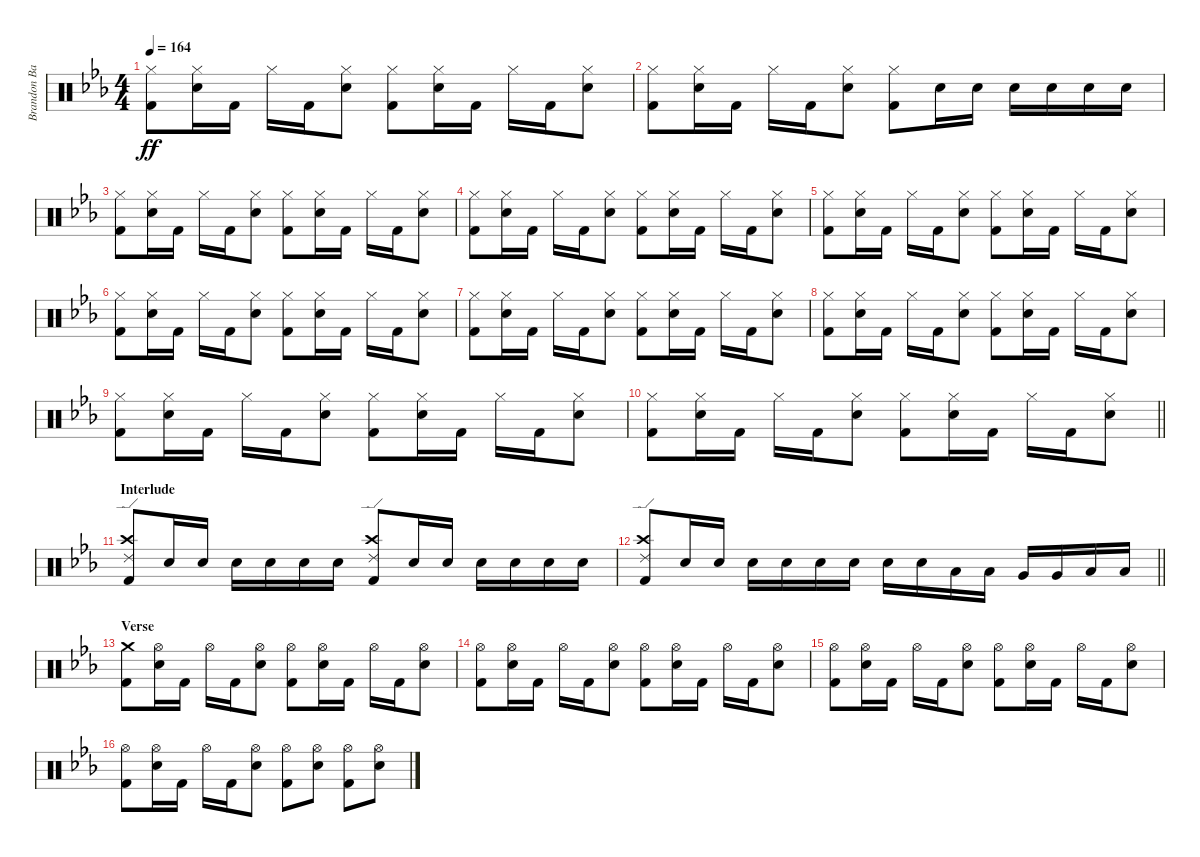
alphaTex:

\track ("Brandon Barnes - Drums" "Brandon Ba") {instrument percussion}
\staff {score}
\articulation defaults
\ts (4 4)
\tempo 164
\clef neutral
\ks eb
("Kick (hit) 2" "Hi-Hat (closed)").8{dy ff} ("Electric Snare (hit)" "Hi-Hat (closed)").16 "Kick (hit) 2".16 "Hi-Hat (closed)".16 "Kick (hit) 2".16 ("Electric Snare (hit)" "Hi-Hat (closed)").8 ("Kick (hit) 2" "Hi-Hat (closed)").8 ("Electric Snare (hit)" "Hi-Hat (closed)").16 "Kick (hit) 2".16 "Hi-Hat (closed)".16 "Kick (hit) 2".16 ("Electric Snare (hit)" "Hi-Hat (closed)").8 |
("Kick (hit) 2" "Hi-Hat (closed)").8 ("Electric Snare (hit)" "Hi-Hat (closed)").16 "Kick (hit) 2".16 "Hi-Hat (closed)".16 "Kick (hit) 2".16 ("Electric Snare (hit)" "Hi-Hat (closed)").8 ("Kick (hit) 2" "Hi-Hat (closed)").8 "Electric Snare (hit)".16 "Snare (hit) 2".16 "Snare (hit) 2".16 "Snare (hit) 2".16 "Snare (hit) 2".16 "Snare (hit) 2".16 |
("Kick (hit) 2" "Hi-Hat (closed)").8 ("Electric Snare (hit)" "Hi-Hat (closed)").16 "Kick (hit) 2".16 "Hi-Hat (closed)".16 "Kick (hit) 2".16 ("Electric Snare (hit)" "Hi-Hat (closed)").8 ("Kick (hit) 2" "Hi-Hat (closed)").8 ("Electric Snare (hit)" "Hi-Hat (closed)").16 "Kick (hit) 2".16 "Hi-Hat (closed)".16 "Kick (hit) 2".16 ("Electric Snare (hit)" "Hi-Hat (closed)").8 |
("Kick (hit) 2" "Hi-Hat (closed)").8 ("Electric Snare (hit)" "Hi-Hat (closed)").16 "Kick (hit) 2".16 "Hi-Hat (closed)".16 "Kick (hit) 2".16 ("Electric Snare (hit)" "Hi-Hat (closed)").8 ("Kick (hit) 2" "Hi-Hat (closed)").8 ("Electric Snare (hit)" "Hi-Hat (closed)").16 "Kick (hit) 2".16 "Hi-Hat (closed)".16 "Kick (hit) 2".16 ("Electric Snare (hit)" "Hi-Hat (closed)").8 |
("Kick (hit) 2" "Hi-Hat (closed)").8 ("Electric Snare (hit)" "Hi-Hat (closed)").16 "Kick (hit) 2".16 "Hi-Hat (closed)".16 "Kick (hit) 2".16 ("Electric Snare (hit)" "Hi-Hat (closed)").8 ("Kick (hit) 2" "Hi-Hat (closed)").8 ("Electric Snare (hit)" "Hi-Hat (closed)").16 "Kick (hit) 2".16 "Hi-Hat (closed)".16 "Kick (hit) 2".16 ("Electric Snare (hit)" "Hi-Hat (closed)").8 |
("Kick (hit) 2" "Hi-Hat (closed)").8 ("Electric Snare (hit)" "Hi-Hat (closed)").16 "Kick (hit) 2".16 "Hi-Hat (closed)".16 "Kick (hit) 2".16 ("Electric Snare (hit)" "Hi-Hat (closed)").8 ("Kick (hit) 2" "Hi-Hat (closed)").8 ("Electric Snare (hit)" "Hi-Hat (closed)").16 "Kick (hit) 2".16 "Hi-Hat (closed)".16 "Kick (hit) 2".16 ("Electric Snare (hit)" "Hi-Hat (closed)").8 |
("Kick (hit) 2" "Hi-Hat (closed)").8 ("Electric Snare (hit)" "Hi-Hat (closed)").16 "Kick (hit) 2".16 "Hi-Hat (closed)".16 "Kick (hit) 2".16 ("Electric Snare (hit)" "Hi-Hat (closed)").8 ("Kick (hit) 2" "Hi-Hat (closed)").8 ("Electric Snare (hit)" "Hi-Hat (closed)").16 "Kick (hit) 2".16 "Hi-Hat (closed)".16 "Kick (hit) 2".16 ("Electric Snare (hit)" "Hi-Hat (closed)").8 |
("Kick (hit) 2" "Hi-Hat (closed)").8 ("Electric Snare (hit)" "Hi-Hat (closed)").16 "Kick (hit) 2".16 "Hi-Hat (closed)".16 "Kick (hit) 2".16 ("Electric Snare (hit)" "Hi-Hat (closed)").8 ("Kick (hit) 2" "Hi-Hat (closed)").8 ("Electric Snare (hit)" "Hi-Hat (closed)").16 "Kick (hit) 2".16 "Hi-Hat (closed)".16 "Kick (hit) 2".16 ("Electric Snare (hit)" "Hi-Hat (closed)").8 |
("Kick (hit) 2" "Hi-Hat (closed)").8 ("Electric Snare (hit)" "Hi-Hat (closed)").16 "Kick (hit) 2".16 "Hi-Hat (closed)".16 "Kick (hit) 2".16 ("Electric Snare (hit)" "Hi-Hat (closed)").8 ("Kick (hit) 2" "Hi-Hat (closed)").8 ("Electric Snare (hit)" "Hi-Hat (closed)").16 "Kick (hit) 2".16 "Hi-Hat (closed)".16 "Kick (hit) 2".16 ("Electric Snare (hit)" "Hi-Hat (closed)").8 |
\barLineRight lightlight
("Kick (hit) 2" "Hi-Hat (closed)").8 ("Electric Snare (hit)" "Hi-Hat (closed)").16 "Kick (hit) 2".16 "Hi-Hat (closed)".16 "Kick (hit) 2".16 ("Electric Snare (hit)" "Hi-Hat (closed)").8 ("Kick (hit) 2" "Hi-Hat (closed)").8 ("Electric Snare (hit)" "Hi-Hat (closed)").16 "Kick (hit) 2".16 "Hi-Hat (closed)".16 "Kick (hit) 2".16 ("Electric Snare (hit)" "Hi-Hat (closed)").8 |
\section ("" "Interlude")
("Crash high (hit)" "Ride (edge) 2" "Kick (hit) 2").8 "Snare (hit) 2".16 "Snare (hit) 2".16 "Snare (hit) 2".16 "Snare (hit) 2".16 "Snare (hit) 2".16 "Snare (hit) 2".16 ("Crash high (hit)" "Ride (edge) 2" "Kick (hit) 2").8 "Snare (hit) 2".16 "Snare (hit) 2".16 "Snare (hit) 2".16 "Snare (hit) 2".16 "Snare (hit) 2".16 "Snare (hit) 2".16 |
\barLineRight lightlight
("Crash high (hit)" "Ride (edge) 2" "Kick (hit) 2").8 "Snare (hit) 2".16 "Snare (hit) 2".16 "Snare (hit) 2".16 "Snare (hit) 2".16 "Snare (hit) 2".16 "Snare (hit) 2".16 "Snare (hit) 2".16 "Snare (hit) 2".16 "Low Tom (hit)".16 "Low Tom (hit)".16 "Very Low Tom (hit)".16 "Very Low Tom (hit)".16 "Low Floor Tom (hit)".16 "Low Floor Tom (hit)".16 |
\section ("" "Verse")
("Kick (hit) 2" "Crash medium (hit)").8 ("Electric Snare (hit)" "Hi-Hat (open)").16 "Kick (hit) 2".16 "Hi-Hat (open)".16 "Kick (hit) 2".16 ("Electric Snare (hit)" "Hi-Hat (open)").8 ("Kick (hit) 2" "Hi-Hat (open)").8 ("Electric Snare (hit)" "Hi-Hat (open)").16 "Kick (hit) 2".16 "Hi-Hat (open)".16 "Kick (hit) 2".16 ("Electric Snare (hit)" "Hi-Hat (open)").8 |
("Kick (hit) 2" "Hi-Hat (open)").8 ("Electric Snare (hit)" "Hi-Hat (open)").16 "Kick (hit) 2".16 "Hi-Hat (open)".16 "Kick (hit) 2".16 ("Electric Snare (hit)" "Hi-Hat (open)").8 ("Kick (hit) 2" "Hi-Hat (open)").8 ("Electric Snare (hit)" "Hi-Hat (open)").16 "Kick (hit) 2".16 "Hi-Hat (open)".16 "Kick (hit) 2".16 ("Electric Snare (hit)" "Hi-Hat (open)").8 |
("Kick (hit) 2" "Hi-Hat (open)").8 ("Electric Snare (hit)" "Hi-Hat (open)").16 "Kick (hit) 2".16 "Hi-Hat (open)".16 "Kick (hit) 2".16 ("Electric Snare (hit)" "Hi-Hat (open)").8 ("Kick (hit) 2" "Hi-Hat (open)").8 ("Electric Snare (hit)" "Hi-Hat (open)").16 "Kick (hit) 2".16 "Hi-Hat (open)".16 "Kick (hit) 2".16 ("Electric Snare (hit)" "Hi-Hat (open)").8 |
("Kick (hit) 2" "Hi-Hat (open)").8 ("Electric Snare (hit)" "Hi-Hat (open)").16 "Kick (hit) 2".16 "Hi-Hat (open)".16 "Kick (hit) 2".16 ("Electric Snare (hit)" "Hi-Hat (open)").8 ("Kick (hit) 2" "Hi-Hat (open)").8 ("Electric Snare (hit)" "Hi-Hat (open)").8 ("Kick (hit) 2" "Hi-Hat (open)").8 ("Electric Snare (hit)" "Hi-Hat (open)").8
